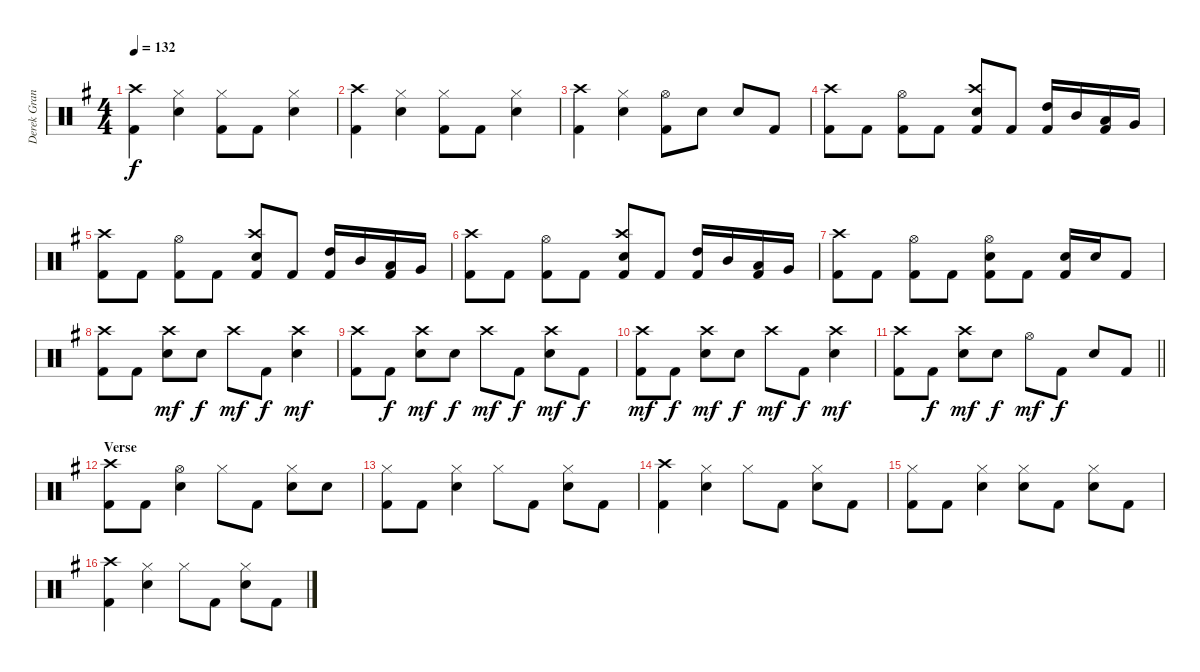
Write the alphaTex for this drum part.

\track ("Derek Grant - Drums" "Derek Gran") {instrument percussion}
\staff {score}
\articulation defaults
\ts (4 4)
\tempo 132
\clef neutral
\ks g
("Kick (hit) 2" "Crash high (hit)").4{dy f} ("Snare (hit) 2" "Hi-Hat (closed)").4 ("Kick (hit) 2" "Hi-Hat (closed)").8 "Kick (hit) 2".8 ("Snare (hit) 2" "Hi-Hat (closed)").4 |
("Kick (hit) 2" "Crash high (hit)").4 ("Snare (hit) 2" "Hi-Hat (closed)").4 ("Kick (hit) 2" "Hi-Hat (closed)").8 "Kick (hit) 2".8 ("Snare (hit) 2" "Hi-Hat (closed)").4 |
("Kick (hit) 2" "Crash high (hit)").4 ("Snare (hit) 2" "Hi-Hat (closed)").4 ("Kick (hit) 2" "Hi-Hat (open)").8 "Snare (hit) 2".8 "Snare (hit) 2".8 "Kick (hit) 2".8 |
("Kick (hit) 2" "Crash high (hit)").8 "Kick (hit) 2".8 ("Kick (hit) 2" "Hi-Hat (open)").8 "Kick (hit) 2".8 ("Kick (hit) 2" "Snare (hit) 2" "Crash high (hit)").8 "Kick (hit) 2".8 ("Kick (hit) 2" "High Tom (hit)").16 "Mid Tom (hit)".16 ("Kick (hit) 2" "Low Tom (hit)").16 "Very Low Tom (hit)".16 |
("Kick (hit) 2" "Crash high (hit)").8 "Kick (hit) 2".8 ("Kick (hit) 2" "Hi-Hat (open)").8 "Kick (hit) 2".8 ("Kick (hit) 2" "Snare (hit) 2" "Crash high (hit)").8 "Kick (hit) 2".8 ("Kick (hit) 2" "High Tom (hit)").16 "Mid Tom (hit)".16 ("Kick (hit) 2" "Low Tom (hit)").16 "Very Low Tom (hit)".16 |
("Kick (hit) 2" "Crash high (hit)").8 "Kick (hit) 2".8 ("Kick (hit) 2" "Hi-Hat (open)").8 "Kick (hit) 2".8 ("Kick (hit) 2" "Snare (hit) 2" "Crash high (hit)").8 "Kick (hit) 2".8 ("Kick (hit) 2" "High Tom (hit)").16 "Mid Tom (hit)".16 ("Kick (hit) 2" "Low Tom (hit)").16 "Very Low Tom (hit)".16 |
("Kick (hit) 2" "Crash high (hit)").8 "Kick (hit) 2".8 ("Kick (hit) 2" "Hi-Hat (open)").8 "Kick (hit) 2".8 ("Kick (hit) 2" "Snare (hit) 2" "Hi-Hat (open)").8 "Kick (hit) 2".8 ("Kick (hit) 2" "Snare (hit) 2").16 "Snare (hit) 2".16 "Kick (hit) 2".8 |
("Kick (hit) 2" "Crash high (hit)").8 "Kick (hit) 2".8 ("Snare (hit) 2" "Crash high (hit)").8{dy mf} "Snare (hit) 2".8{dy f} "Crash high (hit)".8{dy mf} "Kick (hit) 2".8{dy f} ("Snare (hit) 2" "Crash high (hit)").4{dy mf} |
("Kick (hit) 2" "Crash high (hit)").8 "Kick (hit) 2".8{dy f} ("Snare (hit) 2" "Crash high (hit)").8{dy mf} "Snare (hit) 2".8{dy f} "Crash high (hit)".8{dy mf} "Kick (hit) 2".8{dy f} ("Snare (hit) 2" "Crash high (hit)").8{dy mf} "Kick (hit) 2".8{dy f} |
("Kick (hit) 2" "Crash high (hit)").8{dy mf} "Kick (hit) 2".8{dy f} ("Snare (hit) 2" "Crash high (hit)").8{dy mf} "Snare (hit) 2".8{dy f} "Crash high (hit)".8{dy mf} "Kick (hit) 2".8{dy f} ("Snare (hit) 2" "Crash high (hit)").4{dy mf} |
\barLineRight lightlight
("Kick (hit) 2" "Crash high (hit)").8 "Kick (hit) 2".8{dy f} ("Snare (hit) 2" "Crash high (hit)").8{dy mf} "Snare (hit) 2".8{dy f} "Hi-Hat (open)".8{dy mf} "Kick (hit) 2".8{dy f} "Snare (hit) 2".8 "Kick (hit) 2".8 |
\section ("" "Verse")
("Kick (hit) 2" "Crash high (hit)").8 "Kick (hit) 2".8 ("Snare (hit) 2" "Hi-Hat (open)").4 "Hi-Hat (closed)".8 "Kick (hit) 2".8 ("Snare (hit) 2" "Hi-Hat (closed)").8 "Snare (hit) 2".8 |
("Kick (hit) 2" "Hi-Hat (closed)").8 "Kick (hit) 2".8 ("Snare (hit) 2" "Hi-Hat (closed)").4 "Hi-Hat (closed)".8 "Kick (hit) 2".8 ("Snare (hit) 2" "Hi-Hat (closed)").8 "Kick (hit) 2".8 |
("Kick (hit) 2" "Crash high (hit)").4 ("Snare (hit) 2" "Hi-Hat (closed)").4 "Hi-Hat (closed)".8 "Kick (hit) 2".8 ("Snare (hit) 2" "Hi-Hat (closed)").8 "Kick (hit) 2".8 |
("Kick (hit) 2" "Hi-Hat (closed)").8 "Kick (hit) 2".8 ("Snare (hit) 2" "Hi-Hat (closed)").4 ("Snare (hit) 2" "Hi-Hat (closed)").8 "Kick (hit) 2".8 ("Snare (hit) 2" "Hi-Hat (closed)").8 "Kick (hit) 2".8 |
("Kick (hit) 2" "Crash high (hit)").4 ("Snare (hit) 2" "Hi-Hat (closed)").4 "Hi-Hat (closed)".8 "Kick (hit) 2".8 ("Snare (hit) 2" "Hi-Hat (closed)").8 "Kick (hit) 2".8
